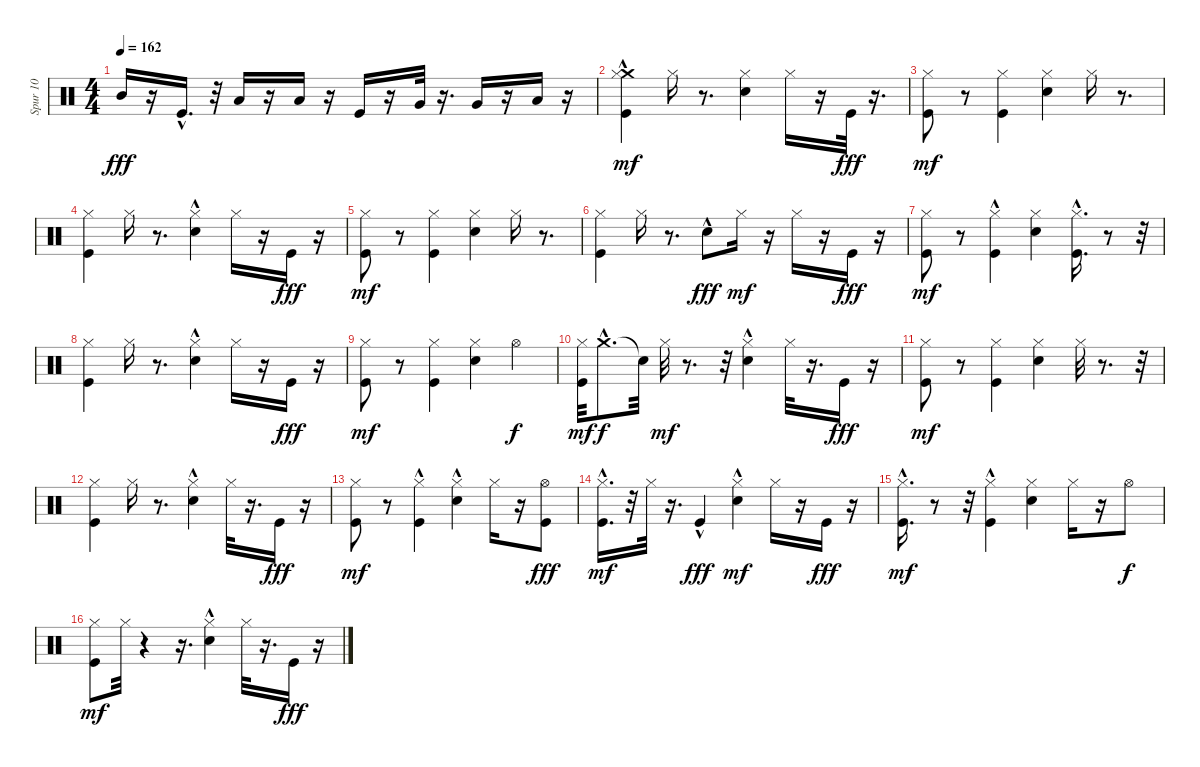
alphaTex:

\track ("Spur 10" "Spur 10") {instrument percussion}
\staff {score}
\articulation defaults
\ts (4 4)
\tempo 162
\clef neutral
\ks c "Mid Tom (hit)".16{dy fff}
r.16 "Kick (hit)"{hac}.16{d} r.32 "Low Tom (hit)".16 r.16 "Low Tom (hit)".16 r.16 "Kick (hit)".16 r.16 "Very Low Tom (hit)".32 r.16{d} "Very Low Tom (hit)".16 r.16 "Low Floor Tom (hit)".16 r.16 |
("Kick (hit)"{hac} "Crash medium (hit)" "Hi-Hat (closed)").4{dy mf} "Hi-Hat (closed)".16 r.8{d} ("Snare (hit) 2" "Hi-Hat (closed)").4 "Hi-Hat (closed)".16 r.16 "Kick (hit)".32{dy fff} r.16{d} |
("Kick (hit)" "Hi-Hat (closed)").8{dy mf} r.8 ("Kick (hit)" "Hi-Hat (closed)").4 ("Snare (hit) 2" "Hi-Hat (closed)").4 "Hi-Hat (closed)".16 r.8{d} |
("Kick (hit)" "Hi-Hat (closed)").4 "Hi-Hat (closed)".16 r.8{d} ("Snare (hit) 2"{hac} "Hi-Hat (closed)").4 "Hi-Hat (closed)".16 r.16 "Kick (hit)".16{dy fff} r.16 |
("Kick (hit)" "Hi-Hat (closed)").8{dy mf} r.8 ("Kick (hit)" "Hi-Hat (closed)").4 ("Snare (hit) 2" "Hi-Hat (closed)").4 "Hi-Hat (closed)".16 r.8{d} |
("Kick (hit)" "Hi-Hat (closed)").4 "Hi-Hat (closed)".16 r.8{d} "Snare (hit) 2"{hac}.8{dy fff} "Hi-Hat (closed)".16{dy mf} r.16 "Hi-Hat (closed)".16 r.16 "Kick (hit)".16{dy fff} r.16 |
("Kick (hit)" "Hi-Hat (closed)").8{dy mf} r.8 ("Kick (hit)"{hac} "Hi-Hat (closed)").4 ("Snare (hit) 2" "Hi-Hat (closed)").4 ("Kick (hit)"{hac} "Hi-Hat (closed)").16{d} r.8 r.32 |
("Kick (hit)" "Hi-Hat (closed)").4 "Hi-Hat (closed)".16 r.8{d} ("Snare (hit) 2"{hac} "Hi-Hat (closed)").4 "Hi-Hat (closed)".16 r.16 "Kick (hit)".16{dy fff} r.16 |
("Kick (hit)" "Hi-Hat (closed)").8{dy mf} r.8 ("Kick (hit)" "Hi-Hat (closed)").4 ("Snare (hit) 2" "Hi-Hat (closed)").4 "Hi-Hat (open)".4{dy f} |
("Kick (hit)" "Hi-Hat (closed)").32{dy mf} "Crash medium (hit)"{hac}.8{d dy f} "Snare (hit)"{t}.32 "Hi-Hat (closed)".32{dy mf} r.8{d} r.32 ("Snare (hit) 2"{hac} "Hi-Hat (closed)").4 "Hi-Hat (closed)".32 r.16{d} "Kick (hit)".16{dy fff} r.16 |
("Kick (hit)" "Hi-Hat (closed)").8{dy mf} r.8 ("Kick (hit)" "Hi-Hat (closed)").4 ("Snare (hit) 2" "Hi-Hat (closed)").4 "Hi-Hat (closed)".32 r.8{d} r.32 |
("Kick (hit)" "Hi-Hat (closed)").4 "Hi-Hat (closed)".16 r.8{d} ("Snare (hit) 2"{hac} "Hi-Hat (closed)").4 "Hi-Hat (closed)".32 r.16{d} "Kick (hit)".16{dy fff} r.16 |
("Kick (hit)" "Hi-Hat (closed)").8{dy mf} r.8 ("Kick (hit)"{hac} "Hi-Hat (closed)").4 ("Snare (hit) 2"{hac} "Hi-Hat (closed)").4 "Hi-Hat (closed)".16 r.16 ("Kick (hit)" "Hi-Hat (open)").8{dy fff} |
("Kick (hit)"{hac} "Hi-Hat (closed)").16{d dy mf} r.32 "Hi-Hat (closed)".32 r.16{d} "Kick (hit)"{hac}.4{dy fff} ("Snare (hit) 2"{hac} "Hi-Hat (closed)").4{dy mf} "Hi-Hat (closed)".16 r.16 "Kick (hit)".16{dy fff} r.16 |
("Kick (hit)"{hac} "Hi-Hat (closed)").16{d dy mf} r.8 r.32 ("Kick (hit)"{hac} "Hi-Hat (closed)").4 ("Snare (hit) 2" "Hi-Hat (closed)").4 "Hi-Hat (closed)".16 r.16 "Hi-Hat (open)".8{dy f} |
("Kick (hit)" "Hi-Hat (closed)").8{dy mf} "Hi-Hat (closed)".32 r.4 r.16{d} ("Snare (hit) 2"{hac} "Hi-Hat (closed)").4 "Hi-Hat (closed)".32 r.16{d} "Kick (hit)".16{dy fff} r.16
